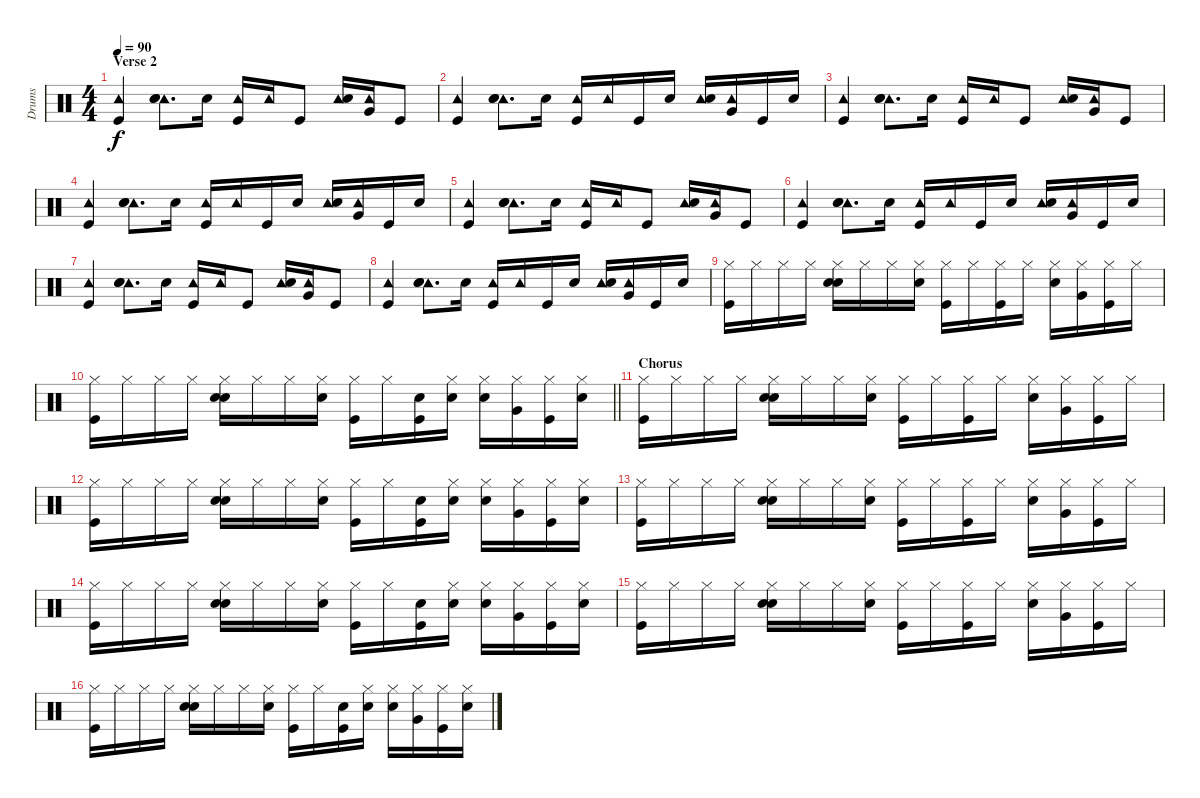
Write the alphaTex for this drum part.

\track ("Drums" "Drums") {instrument percussion}
\staff {score}
\articulation defaults
\ts (4 4)
\section ("" "Verse 2")
\tempo 90
\clef neutral
\ks c
("Tambourine (hit)" "Kick (hit)").4{dy f} ("Tambourine (hit)" "Electric Snare (hit)" "Hand Clap (hit)").8{d} "Electric Snare (hit)".16 ("Tambourine (hit)" "Kick (hit)").16 "Tambourine (hit)".16 "Kick (hit)".8 ("Tambourine (hit)" "Electric Snare (hit)").16 ("Tambourine (hit)" "Very Low Tom (hit)").16 "Kick (hit)".8 |
("Tambourine (hit)" "Kick (hit)").4 ("Tambourine (hit)" "Electric Snare (hit)" "Hand Clap (hit)").8{d} "Electric Snare (hit)".16 ("Tambourine (hit)" "Kick (hit)").16 "Tambourine (hit)".16 "Kick (hit)".16 "Electric Snare (hit)".16 ("Tambourine (hit)" "Electric Snare (hit)").16 ("Tambourine (hit)" "Very Low Tom (hit)").16 "Kick (hit)".16 "Electric Snare (hit)".16 |
("Tambourine (hit)" "Kick (hit)").4 ("Tambourine (hit)" "Electric Snare (hit)" "Hand Clap (hit)").8{d} "Electric Snare (hit)".16 ("Tambourine (hit)" "Kick (hit)").16 "Tambourine (hit)".16 "Kick (hit)".8 ("Tambourine (hit)" "Electric Snare (hit)").16 ("Tambourine (hit)" "Very Low Tom (hit)").16 "Kick (hit)".8 |
("Tambourine (hit)" "Kick (hit)").4 ("Tambourine (hit)" "Electric Snare (hit)" "Hand Clap (hit)").8{d} "Electric Snare (hit)".16 ("Tambourine (hit)" "Kick (hit)").16 "Tambourine (hit)".16 "Kick (hit)".16 "Electric Snare (hit)".16 ("Tambourine (hit)" "Electric Snare (hit)").16 ("Tambourine (hit)" "Very Low Tom (hit)").16 "Kick (hit)".16 "Electric Snare (hit)".16 |
("Tambourine (hit)" "Kick (hit)").4 ("Tambourine (hit)" "Electric Snare (hit)" "Hand Clap (hit)").8{d} "Electric Snare (hit)".16 ("Tambourine (hit)" "Kick (hit)").16 "Tambourine (hit)".16 "Kick (hit)".8 ("Tambourine (hit)" "Electric Snare (hit)").16 ("Tambourine (hit)" "Very Low Tom (hit)").16 "Kick (hit)".8 |
("Tambourine (hit)" "Kick (hit)").4 ("Tambourine (hit)" "Electric Snare (hit)" "Hand Clap (hit)").8{d} "Electric Snare (hit)".16 ("Tambourine (hit)" "Kick (hit)").16 "Tambourine (hit)".16 "Kick (hit)".16 "Electric Snare (hit)".16 ("Tambourine (hit)" "Electric Snare (hit)").16 ("Tambourine (hit)" "Very Low Tom (hit)").16 "Kick (hit)".16 "Electric Snare (hit)".16 |
("Tambourine (hit)" "Kick (hit)").4 ("Tambourine (hit)" "Electric Snare (hit)" "Hand Clap (hit)").8{d} "Electric Snare (hit)".16 ("Tambourine (hit)" "Kick (hit)").16 "Tambourine (hit)".16 "Kick (hit)".8 ("Tambourine (hit)" "Electric Snare (hit)").16 ("Tambourine (hit)" "Very Low Tom (hit)").16 "Kick (hit)".8 |
("Tambourine (hit)" "Kick (hit)").4 ("Tambourine (hit)" "Electric Snare (hit)" "Hand Clap (hit)").8{d} "Electric Snare (hit)".16 ("Tambourine (hit)" "Kick (hit)").16 "Tambourine (hit)".16 "Kick (hit)".16 "Electric Snare (hit)".16 ("Tambourine (hit)" "Electric Snare (hit)").16 ("Tambourine (hit)" "Very Low Tom (hit)").16 "Kick (hit)".16 "Electric Snare (hit)".16 |
("Hi-Hat (closed)" "Kick (hit)").16 "Hi-Hat (closed)".16 "Hi-Hat (closed)".16 "Hi-Hat (closed)".16 ("Hi-Hat (closed)" "Electric Snare (hit)" "Hand Clap (hit)").16 "Hi-Hat (closed)".16 "Hi-Hat (closed)".16 ("Hi-Hat (closed)" "Electric Snare (hit)").16 ("Hi-Hat (closed)" "Kick (hit)").16 "Hi-Hat (closed)".16 ("Hi-Hat (closed)" "Kick (hit)").16 "Hi-Hat (closed)".16 ("Hi-Hat (closed)" "Electric Snare (hit)").16 ("Hi-Hat (closed)" "Very Low Tom (hit)").16 ("Hi-Hat (closed)" "Kick (hit)").16 "Hi-Hat (closed)".16 |
\barLineRight lightlight
("Hi-Hat (closed)" "Kick (hit)").16 "Hi-Hat (closed)".16 "Hi-Hat (closed)".16 "Hi-Hat (closed)".16 ("Hi-Hat (closed)" "Electric Snare (hit)" "Hand Clap (hit)").16 "Hi-Hat (closed)".16 "Hi-Hat (closed)".16 ("Hi-Hat (closed)" "Electric Snare (hit)").16 ("Hi-Hat (closed)" "Kick (hit)").16 "Hi-Hat (closed)".16 ("Snare (hit)" "Kick (hit)").16 ("Hi-Hat (closed)" "Electric Snare (hit)").16 ("Hi-Hat (closed)" "Electric Snare (hit)").16 ("Hi-Hat (closed)" "Very Low Tom (hit)").16 ("Hi-Hat (closed)" "Kick (hit)").16 ("Hi-Hat (closed)" "Electric Snare (hit)").16 |
\section ("" "Chorus")
("Hi-Hat (closed)" "Kick (hit)").16 "Hi-Hat (closed)".16 "Hi-Hat (closed)".16 "Hi-Hat (closed)".16 ("Hi-Hat (closed)" "Electric Snare (hit)" "Hand Clap (hit)").16 "Hi-Hat (closed)".16 "Hi-Hat (closed)".16 ("Hi-Hat (closed)" "Electric Snare (hit)").16 ("Hi-Hat (closed)" "Kick (hit)").16 "Hi-Hat (closed)".16 ("Hi-Hat (closed)" "Kick (hit)").16 "Hi-Hat (closed)".16 ("Hi-Hat (closed)" "Electric Snare (hit)").16 ("Hi-Hat (closed)" "Very Low Tom (hit)").16 ("Hi-Hat (closed)" "Kick (hit)").16 "Hi-Hat (closed)".16 |
("Hi-Hat (closed)" "Kick (hit)").16 "Hi-Hat (closed)".16 "Hi-Hat (closed)".16 "Hi-Hat (closed)".16 ("Hi-Hat (closed)" "Electric Snare (hit)" "Hand Clap (hit)").16 "Hi-Hat (closed)".16 "Hi-Hat (closed)".16 ("Hi-Hat (closed)" "Electric Snare (hit)").16 ("Hi-Hat (closed)" "Kick (hit)").16 "Hi-Hat (closed)".16 ("Snare (hit)" "Kick (hit)").16 ("Hi-Hat (closed)" "Electric Snare (hit)").16 ("Hi-Hat (closed)" "Electric Snare (hit)").16 ("Hi-Hat (closed)" "Very Low Tom (hit)").16 ("Hi-Hat (closed)" "Kick (hit)").16 ("Hi-Hat (closed)" "Electric Snare (hit)").16 |
("Hi-Hat (closed)" "Kick (hit)").16 "Hi-Hat (closed)".16 "Hi-Hat (closed)".16 "Hi-Hat (closed)".16 ("Hi-Hat (closed)" "Electric Snare (hit)" "Hand Clap (hit)").16 "Hi-Hat (closed)".16 "Hi-Hat (closed)".16 ("Hi-Hat (closed)" "Electric Snare (hit)").16 ("Hi-Hat (closed)" "Kick (hit)").16 "Hi-Hat (closed)".16 ("Hi-Hat (closed)" "Kick (hit)").16 "Hi-Hat (closed)".16 ("Hi-Hat (closed)" "Electric Snare (hit)").16 ("Hi-Hat (closed)" "Very Low Tom (hit)").16 ("Hi-Hat (closed)" "Kick (hit)").16 "Hi-Hat (closed)".16 |
("Hi-Hat (closed)" "Kick (hit)").16 "Hi-Hat (closed)".16 "Hi-Hat (closed)".16 "Hi-Hat (closed)".16 ("Hi-Hat (closed)" "Electric Snare (hit)" "Hand Clap (hit)").16 "Hi-Hat (closed)".16 "Hi-Hat (closed)".16 ("Hi-Hat (closed)" "Electric Snare (hit)").16 ("Hi-Hat (closed)" "Kick (hit)").16 "Hi-Hat (closed)".16 ("Snare (hit)" "Kick (hit)").16 ("Hi-Hat (closed)" "Electric Snare (hit)").16 ("Hi-Hat (closed)" "Electric Snare (hit)").16 ("Hi-Hat (closed)" "Very Low Tom (hit)").16 ("Hi-Hat (closed)" "Kick (hit)").16 ("Hi-Hat (closed)" "Electric Snare (hit)").16 |
("Hi-Hat (closed)" "Kick (hit)").16 "Hi-Hat (closed)".16 "Hi-Hat (closed)".16 "Hi-Hat (closed)".16 ("Hi-Hat (closed)" "Electric Snare (hit)" "Hand Clap (hit)").16 "Hi-Hat (closed)".16 "Hi-Hat (closed)".16 ("Hi-Hat (closed)" "Electric Snare (hit)").16 ("Hi-Hat (closed)" "Kick (hit)").16 "Hi-Hat (closed)".16 ("Hi-Hat (closed)" "Kick (hit)").16 "Hi-Hat (closed)".16 ("Hi-Hat (closed)" "Electric Snare (hit)").16 ("Hi-Hat (closed)" "Very Low Tom (hit)").16 ("Hi-Hat (closed)" "Kick (hit)").16 "Hi-Hat (closed)".16 |
("Hi-Hat (closed)" "Kick (hit)").16 "Hi-Hat (closed)".16 "Hi-Hat (closed)".16 "Hi-Hat (closed)".16 ("Hi-Hat (closed)" "Electric Snare (hit)" "Hand Clap (hit)").16 "Hi-Hat (closed)".16 "Hi-Hat (closed)".16 ("Hi-Hat (closed)" "Electric Snare (hit)").16 ("Hi-Hat (closed)" "Kick (hit)").16 "Hi-Hat (closed)".16 ("Snare (hit)" "Kick (hit)").16 ("Hi-Hat (closed)" "Electric Snare (hit)").16 ("Hi-Hat (closed)" "Electric Snare (hit)").16 ("Hi-Hat (closed)" "Very Low Tom (hit)").16 ("Hi-Hat (closed)" "Kick (hit)").16 ("Hi-Hat (closed)" "Electric Snare (hit)").16
